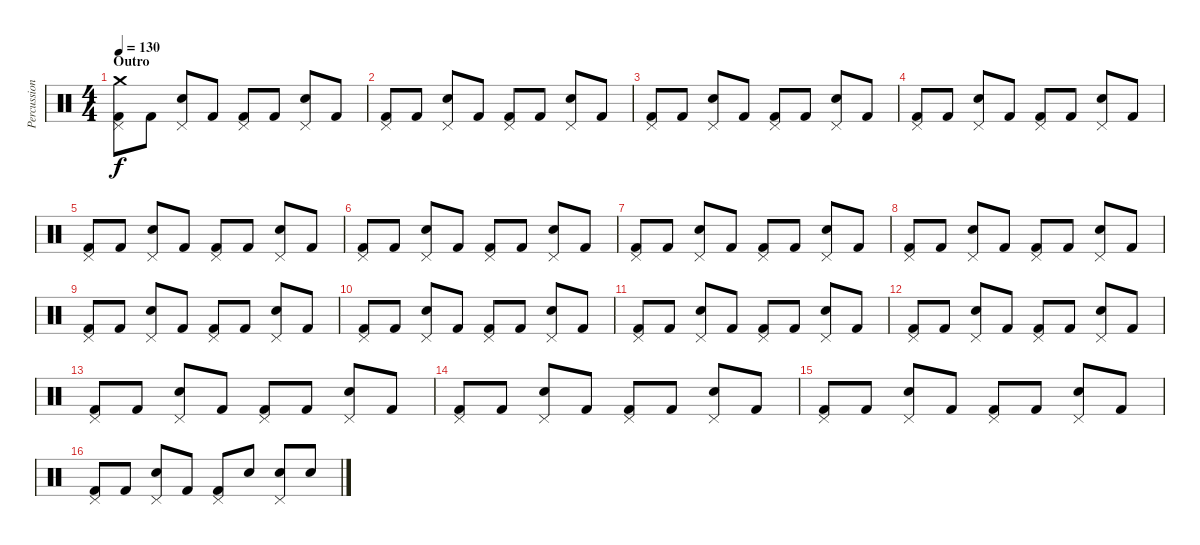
\track ("Percussions" "Percussion") {instrument percussion}
\staff {score}
\articulation defaults
\ts (4 4)
\section ("" "Outro")
\tempo 130
\clef neutral
\ks c
("Crash medium (hit)" "Pedal Hi-Hat (hit)" "Kick (hit) 2").8{dy f} "Kick (hit) 2".8 ("Pedal Hi-Hat (hit)" "Snare (hit) 2").8 "Kick (hit) 2".8 ("Pedal Hi-Hat (hit)" "Kick (hit) 2").8 "Kick (hit) 2".8 ("Pedal Hi-Hat (hit)" "Snare (hit) 2").8 "Kick (hit) 2".8 |
("Pedal Hi-Hat (hit)" "Kick (hit) 2").8 "Kick (hit) 2".8 ("Pedal Hi-Hat (hit)" "Snare (hit) 2").8 "Kick (hit) 2".8 ("Pedal Hi-Hat (hit)" "Kick (hit) 2").8 "Kick (hit) 2".8 ("Pedal Hi-Hat (hit)" "Snare (hit) 2").8 "Kick (hit) 2".8 |
("Pedal Hi-Hat (hit)" "Kick (hit) 2").8 "Kick (hit) 2".8 ("Pedal Hi-Hat (hit)" "Snare (hit) 2").8 "Kick (hit) 2".8 ("Pedal Hi-Hat (hit)" "Kick (hit) 2").8 "Kick (hit) 2".8 ("Pedal Hi-Hat (hit)" "Snare (hit) 2").8 "Kick (hit) 2".8 |
("Pedal Hi-Hat (hit)" "Kick (hit) 2").8 "Kick (hit) 2".8 ("Pedal Hi-Hat (hit)" "Snare (hit) 2").8 "Kick (hit) 2".8 ("Pedal Hi-Hat (hit)" "Kick (hit) 2").8 "Kick (hit) 2".8 ("Pedal Hi-Hat (hit)" "Snare (hit) 2").8 "Kick (hit) 2".8 |
("Pedal Hi-Hat (hit)" "Kick (hit) 2").8 "Kick (hit) 2".8 ("Pedal Hi-Hat (hit)" "Snare (hit) 2").8 "Kick (hit) 2".8 ("Pedal Hi-Hat (hit)" "Kick (hit) 2").8 "Kick (hit) 2".8 ("Pedal Hi-Hat (hit)" "Snare (hit) 2").8 "Kick (hit) 2".8 |
("Pedal Hi-Hat (hit)" "Kick (hit) 2").8 "Kick (hit) 2".8 ("Pedal Hi-Hat (hit)" "Snare (hit) 2").8 "Kick (hit) 2".8 ("Pedal Hi-Hat (hit)" "Kick (hit) 2").8 "Kick (hit) 2".8 ("Pedal Hi-Hat (hit)" "Snare (hit) 2").8 "Kick (hit) 2".8 |
("Pedal Hi-Hat (hit)" "Kick (hit) 2").8 "Kick (hit) 2".8 ("Pedal Hi-Hat (hit)" "Snare (hit) 2").8 "Kick (hit) 2".8 ("Pedal Hi-Hat (hit)" "Kick (hit) 2").8 "Kick (hit) 2".8 ("Pedal Hi-Hat (hit)" "Snare (hit) 2").8 "Kick (hit) 2".8 |
("Pedal Hi-Hat (hit)" "Kick (hit) 2").8 "Kick (hit) 2".8 ("Pedal Hi-Hat (hit)" "Snare (hit) 2").8 "Kick (hit) 2".8 ("Pedal Hi-Hat (hit)" "Kick (hit) 2").8 "Kick (hit) 2".8 ("Pedal Hi-Hat (hit)" "Snare (hit) 2").8 "Kick (hit) 2".8 |
("Pedal Hi-Hat (hit)" "Kick (hit) 2").8 "Kick (hit) 2".8 ("Pedal Hi-Hat (hit)" "Snare (hit) 2").8 "Kick (hit) 2".8 ("Pedal Hi-Hat (hit)" "Kick (hit) 2").8 "Kick (hit) 2".8 ("Pedal Hi-Hat (hit)" "Snare (hit) 2").8 "Kick (hit) 2".8 |
("Pedal Hi-Hat (hit)" "Kick (hit) 2").8 "Kick (hit) 2".8 ("Pedal Hi-Hat (hit)" "Snare (hit) 2").8 "Kick (hit) 2".8 ("Pedal Hi-Hat (hit)" "Kick (hit) 2").8 "Kick (hit) 2".8 ("Pedal Hi-Hat (hit)" "Snare (hit) 2").8 "Kick (hit) 2".8 |
("Pedal Hi-Hat (hit)" "Kick (hit) 2").8 "Kick (hit) 2".8 ("Pedal Hi-Hat (hit)" "Snare (hit) 2").8 "Kick (hit) 2".8 ("Pedal Hi-Hat (hit)" "Kick (hit) 2").8 "Kick (hit) 2".8 ("Pedal Hi-Hat (hit)" "Snare (hit) 2").8 "Kick (hit) 2".8 |
("Pedal Hi-Hat (hit)" "Kick (hit) 2").8 "Kick (hit) 2".8 ("Pedal Hi-Hat (hit)" "Snare (hit) 2").8 "Kick (hit) 2".8 ("Pedal Hi-Hat (hit)" "Kick (hit) 2").8 "Kick (hit) 2".8 ("Pedal Hi-Hat (hit)" "Snare (hit) 2").8 "Kick (hit) 2".8 |
("Pedal Hi-Hat (hit)" "Kick (hit) 2").8 "Kick (hit) 2".8 ("Pedal Hi-Hat (hit)" "Snare (hit) 2").8 "Kick (hit) 2".8 ("Pedal Hi-Hat (hit)" "Kick (hit) 2").8 "Kick (hit) 2".8 ("Pedal Hi-Hat (hit)" "Snare (hit) 2").8 "Kick (hit) 2".8 |
("Pedal Hi-Hat (hit)" "Kick (hit) 2").8 "Kick (hit) 2".8 ("Pedal Hi-Hat (hit)" "Snare (hit) 2").8 "Kick (hit) 2".8 ("Pedal Hi-Hat (hit)" "Kick (hit) 2").8 "Kick (hit) 2".8 ("Pedal Hi-Hat (hit)" "Snare (hit) 2").8 "Kick (hit) 2".8 |
("Pedal Hi-Hat (hit)" "Kick (hit) 2").8 "Kick (hit) 2".8 ("Pedal Hi-Hat (hit)" "Snare (hit) 2").8 "Kick (hit) 2".8 ("Pedal Hi-Hat (hit)" "Kick (hit) 2").8 "Kick (hit) 2".8 ("Pedal Hi-Hat (hit)" "Snare (hit) 2").8 "Kick (hit) 2".8 |
("Pedal Hi-Hat (hit)" "Kick (hit) 2").8 "Kick (hit) 2".8 ("Pedal Hi-Hat (hit)" "Snare (hit) 2").8 "Kick (hit) 2".8 ("Pedal Hi-Hat (hit)" "Kick (hit) 2").8 "Snare (hit) 2".8 ("Pedal Hi-Hat (hit)" "Snare (hit) 2").8 "Snare (hit) 2".8
